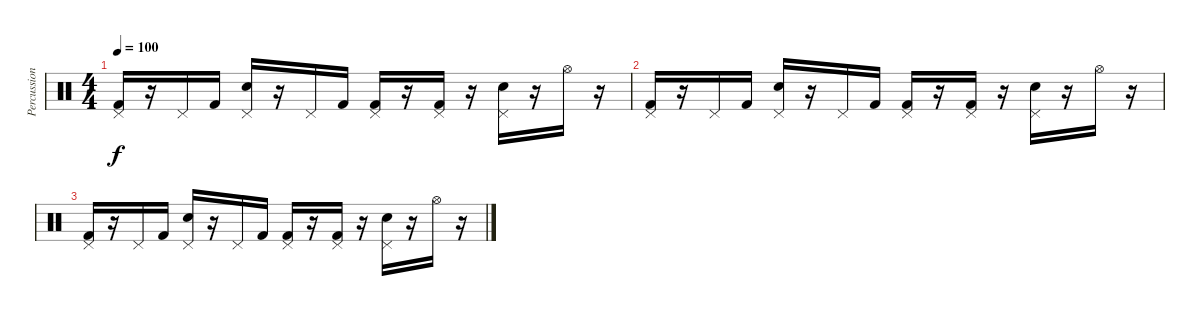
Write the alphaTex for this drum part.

\track ("Percussion" "Percussion") {instrument percussion}
\staff {score}
\articulation defaults
\ts (4 4)
\tempo 100
\clef neutral
\ks c
("Pedal Hi-Hat (hit)" "Kick (hit) 2").16{dy f} r.16 "Pedal Hi-Hat (hit)".16 "Kick (hit) 2".16 ("Pedal Hi-Hat (hit)" "Electric Snare (hit)").16 r.16 "Pedal Hi-Hat (hit)".16 "Kick (hit) 2".16 ("Pedal Hi-Hat (hit)" "Kick (hit) 2").16 r.16 ("Pedal Hi-Hat (hit)" "Kick (hit) 2").16 r.16 ("Pedal Hi-Hat (hit)" "Electric Snare (hit)").16 r.16 "Hi-Hat (open)".16 r.16 |
("Pedal Hi-Hat (hit)" "Kick (hit) 2").16 r.16 "Pedal Hi-Hat (hit)".16 "Kick (hit) 2".16 ("Pedal Hi-Hat (hit)" "Electric Snare (hit)").16 r.16 "Pedal Hi-Hat (hit)".16 "Kick (hit) 2".16 ("Pedal Hi-Hat (hit)" "Kick (hit) 2").16 r.16 ("Pedal Hi-Hat (hit)" "Kick (hit) 2").16 r.16 ("Pedal Hi-Hat (hit)" "Electric Snare (hit)").16 r.16 "Hi-Hat (open)".16 r.16 |
("Pedal Hi-Hat (hit)" "Kick (hit) 2").16 r.16 "Pedal Hi-Hat (hit)".16 "Kick (hit) 2".16 ("Pedal Hi-Hat (hit)" "Electric Snare (hit)").16 r.16 "Pedal Hi-Hat (hit)".16 "Kick (hit) 2".16 ("Pedal Hi-Hat (hit)" "Kick (hit) 2").16 r.16 ("Pedal Hi-Hat (hit)" "Kick (hit) 2").16 r.16 ("Pedal Hi-Hat (hit)" "Electric Snare (hit)").16 r.16 "Hi-Hat (open)".16 r.16
